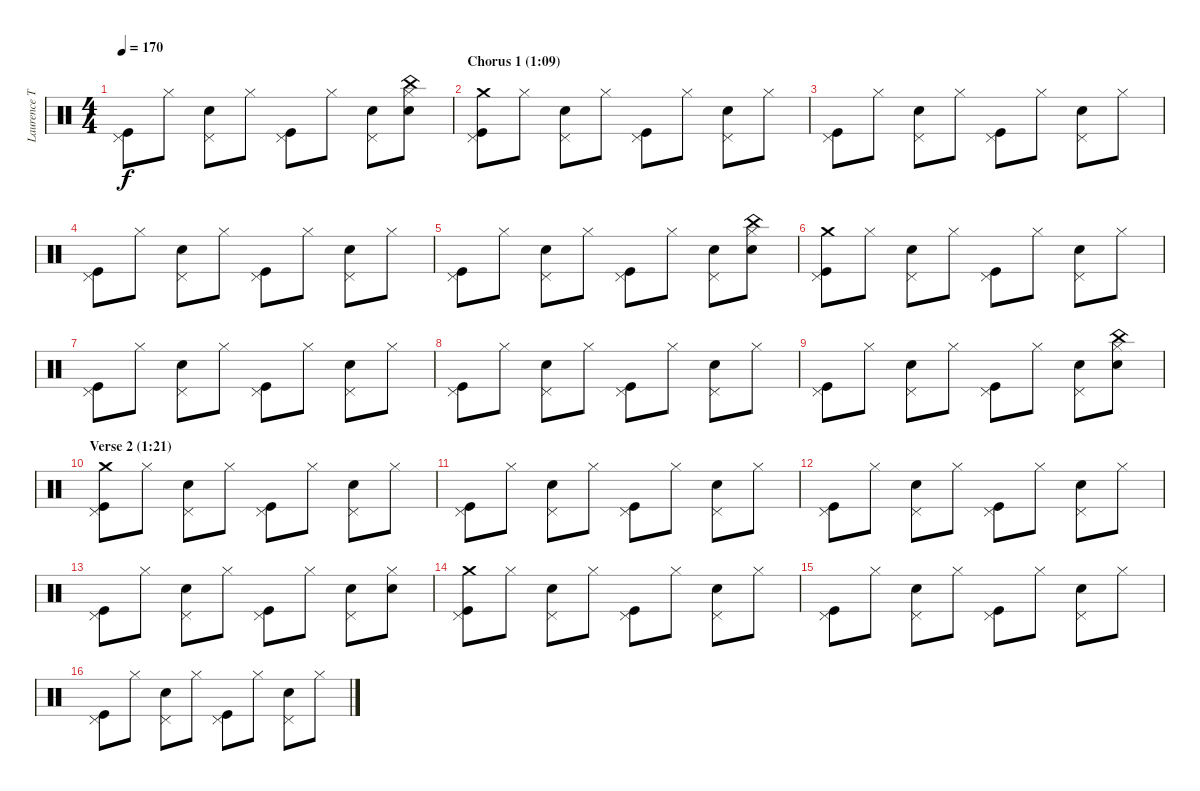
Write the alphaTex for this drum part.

\track ("Laurence Tolhurst (drums)" "Laurence T") {instrument percussion}
\staff {score}
\articulation defaults
\ts (4 4)
\tempo 170
\clef neutral
\ks c
("Pedal Hi-Hat (hit)" "Kick (hit)").8{dy f} "Hi-Hat (closed)".8 ("Pedal Hi-Hat (hit)" "Snare (hit) 2").8 "Hi-Hat (closed)".8 ("Pedal Hi-Hat (hit)" "Kick (hit)").8 "Hi-Hat (closed)".8 ("Pedal Hi-Hat (hit)" "Snare (hit) 2").8 ("China (hit)" "Hi-Hat (closed)" "Snare (hit) 2").8 |
\section ("" "Chorus 1 (1:09)")
("Crash medium (hit)" "Pedal Hi-Hat (hit)" "Kick (hit)").8 "Hi-Hat (closed)".8 ("Pedal Hi-Hat (hit)" "Snare (hit) 2").8 "Hi-Hat (closed)".8 ("Pedal Hi-Hat (hit)" "Kick (hit)").8 "Hi-Hat (closed)".8 ("Pedal Hi-Hat (hit)" "Snare (hit) 2").8 "Hi-Hat (closed)".8 |
("Pedal Hi-Hat (hit)" "Kick (hit)").8 "Hi-Hat (closed)".8 ("Pedal Hi-Hat (hit)" "Snare (hit) 2").8 "Hi-Hat (closed)".8 ("Pedal Hi-Hat (hit)" "Kick (hit)").8 "Hi-Hat (closed)".8 ("Pedal Hi-Hat (hit)" "Snare (hit) 2").8 "Hi-Hat (closed)".8 |
("Pedal Hi-Hat (hit)" "Kick (hit)").8 "Hi-Hat (closed)".8 ("Pedal Hi-Hat (hit)" "Snare (hit) 2").8 "Hi-Hat (closed)".8 ("Pedal Hi-Hat (hit)" "Kick (hit)").8 "Hi-Hat (closed)".8 ("Pedal Hi-Hat (hit)" "Snare (hit) 2").8 "Hi-Hat (closed)".8 |
("Pedal Hi-Hat (hit)" "Kick (hit)").8 "Hi-Hat (closed)".8 ("Pedal Hi-Hat (hit)" "Snare (hit) 2").8 "Hi-Hat (closed)".8 ("Pedal Hi-Hat (hit)" "Kick (hit)").8 "Hi-Hat (closed)".8 ("Pedal Hi-Hat (hit)" "Snare (hit) 2").8 ("China (hit)" "Hi-Hat (closed)" "Snare (hit) 2").8 |
("Crash medium (hit)" "Pedal Hi-Hat (hit)" "Kick (hit)").8 "Hi-Hat (closed)".8 ("Pedal Hi-Hat (hit)" "Snare (hit) 2").8 "Hi-Hat (closed)".8 ("Pedal Hi-Hat (hit)" "Kick (hit)").8 "Hi-Hat (closed)".8 ("Pedal Hi-Hat (hit)" "Snare (hit) 2").8 "Hi-Hat (closed)".8 |
("Pedal Hi-Hat (hit)" "Kick (hit)").8 "Hi-Hat (closed)".8 ("Pedal Hi-Hat (hit)" "Snare (hit) 2").8 "Hi-Hat (closed)".8 ("Pedal Hi-Hat (hit)" "Kick (hit)").8 "Hi-Hat (closed)".8 ("Pedal Hi-Hat (hit)" "Snare (hit) 2").8 "Hi-Hat (closed)".8 |
("Pedal Hi-Hat (hit)" "Kick (hit)").8 "Hi-Hat (closed)".8 ("Pedal Hi-Hat (hit)" "Snare (hit) 2").8 "Hi-Hat (closed)".8 ("Pedal Hi-Hat (hit)" "Kick (hit)").8 "Hi-Hat (closed)".8 ("Pedal Hi-Hat (hit)" "Snare (hit) 2").8 "Hi-Hat (closed)".8 |
("Pedal Hi-Hat (hit)" "Kick (hit)").8 "Hi-Hat (closed)".8 ("Pedal Hi-Hat (hit)" "Snare (hit) 2").8 "Hi-Hat (closed)".8 ("Pedal Hi-Hat (hit)" "Kick (hit)").8 "Hi-Hat (closed)".8 ("Pedal Hi-Hat (hit)" "Snare (hit) 2").8 ("China (hit)" "Hi-Hat (closed)" "Snare (hit) 2").8 |
\section ("" "Verse 2 (1:21)")
("Crash medium (hit)" "Pedal Hi-Hat (hit)" "Kick (hit)").8 "Hi-Hat (closed)".8 ("Pedal Hi-Hat (hit)" "Snare (hit) 2").8 "Hi-Hat (closed)".8 ("Pedal Hi-Hat (hit)" "Kick (hit)").8 "Hi-Hat (closed)".8 ("Pedal Hi-Hat (hit)" "Snare (hit) 2").8 "Hi-Hat (closed)".8 |
("Pedal Hi-Hat (hit)" "Kick (hit)").8 "Hi-Hat (closed)".8 ("Pedal Hi-Hat (hit)" "Snare (hit) 2").8 "Hi-Hat (closed)".8 ("Pedal Hi-Hat (hit)" "Kick (hit)").8 "Hi-Hat (closed)".8 ("Pedal Hi-Hat (hit)" "Snare (hit) 2").8 "Hi-Hat (closed)".8 |
("Pedal Hi-Hat (hit)" "Kick (hit)").8 "Hi-Hat (closed)".8 ("Pedal Hi-Hat (hit)" "Snare (hit) 2").8 "Hi-Hat (closed)".8 ("Pedal Hi-Hat (hit)" "Kick (hit)").8 "Hi-Hat (closed)".8 ("Pedal Hi-Hat (hit)" "Snare (hit) 2").8 "Hi-Hat (closed)".8 |
("Pedal Hi-Hat (hit)" "Kick (hit)").8 "Hi-Hat (closed)".8 ("Pedal Hi-Hat (hit)" "Snare (hit) 2").8 "Hi-Hat (closed)".8 ("Pedal Hi-Hat (hit)" "Kick (hit)").8 "Hi-Hat (closed)".8 ("Pedal Hi-Hat (hit)" "Snare (hit) 2").8 ("Hi-Hat (closed)" "Snare (hit) 2").8 |
("Crash medium (hit)" "Pedal Hi-Hat (hit)" "Kick (hit)").8 "Hi-Hat (closed)".8 ("Pedal Hi-Hat (hit)" "Snare (hit) 2").8 "Hi-Hat (closed)".8 ("Pedal Hi-Hat (hit)" "Kick (hit)").8 "Hi-Hat (closed)".8 ("Pedal Hi-Hat (hit)" "Snare (hit) 2").8 "Hi-Hat (closed)".8 |
("Pedal Hi-Hat (hit)" "Kick (hit)").8 "Hi-Hat (closed)".8 ("Pedal Hi-Hat (hit)" "Snare (hit) 2").8 "Hi-Hat (closed)".8 ("Pedal Hi-Hat (hit)" "Kick (hit)").8 "Hi-Hat (closed)".8 ("Pedal Hi-Hat (hit)" "Snare (hit) 2").8 "Hi-Hat (closed)".8 |
("Pedal Hi-Hat (hit)" "Kick (hit)").8 "Hi-Hat (closed)".8 ("Pedal Hi-Hat (hit)" "Snare (hit) 2").8 "Hi-Hat (closed)".8 ("Pedal Hi-Hat (hit)" "Kick (hit)").8 "Hi-Hat (closed)".8 ("Pedal Hi-Hat (hit)" "Snare (hit) 2").8 "Hi-Hat (closed)".8
